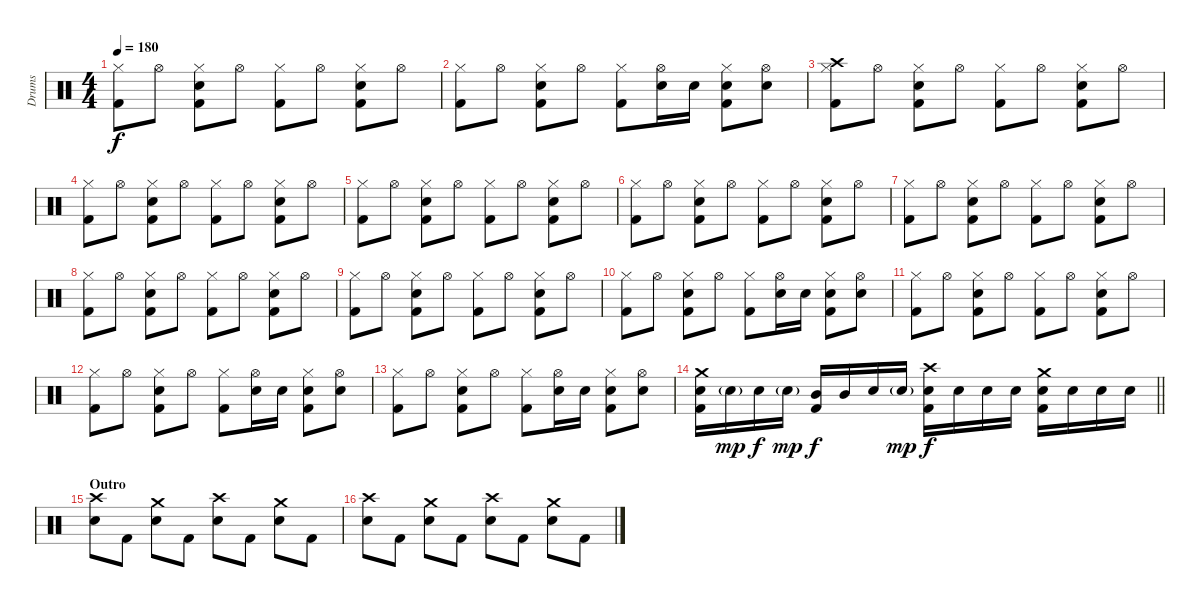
\track ("Drums" "Drums") {instrument percussion}
\staff {score}
\articulation defaults
\ts (4 4)
\tempo 180
\clef neutral
\ks c
("Hi-Hat (closed)" "Kick (hit) 2").8{dy f} "Hi-Hat (open)".8 ("Hi-Hat (closed)" "Snare (hit) 2" "Kick (hit) 2").8 "Hi-Hat (open)".8 ("Hi-Hat (closed)" "Kick (hit) 2").8 "Hi-Hat (open)".8 ("Hi-Hat (closed)" "Snare (hit) 2" "Kick (hit) 2").8 "Hi-Hat (open)".8 |
("Hi-Hat (closed)" "Kick (hit) 2").8 "Hi-Hat (open)".8 ("Hi-Hat (closed)" "Snare (hit) 2" "Kick (hit) 2").8 "Hi-Hat (open)".8 ("Hi-Hat (closed)" "Kick (hit) 2").8 ("Hi-Hat (open)" "Snare (hit) 2").16 "Snare (hit) 2".16 ("Hi-Hat (closed)" "Snare (hit) 2" "Kick (hit) 2").8 ("Hi-Hat (open)" "Snare (hit) 2").8 |
("Crash high (hit)" "Hi-Hat (closed)" "Kick (hit) 2").8 "Hi-Hat (open)".8 ("Hi-Hat (closed)" "Snare (hit) 2" "Kick (hit) 2").8 "Hi-Hat (open)".8 ("Hi-Hat (closed)" "Kick (hit) 2").8 "Hi-Hat (open)".8 ("Hi-Hat (closed)" "Snare (hit) 2" "Kick (hit) 2").8 "Hi-Hat (open)".8 |
("Hi-Hat (closed)" "Kick (hit) 2").8 "Hi-Hat (open)".8 ("Hi-Hat (closed)" "Snare (hit) 2" "Kick (hit) 2").8 "Hi-Hat (open)".8 ("Hi-Hat (closed)" "Kick (hit) 2").8 "Hi-Hat (open)".8 ("Hi-Hat (closed)" "Snare (hit) 2" "Kick (hit) 2").8 "Hi-Hat (open)".8 |
("Hi-Hat (closed)" "Kick (hit) 2").8 "Hi-Hat (open)".8 ("Hi-Hat (closed)" "Snare (hit) 2" "Kick (hit) 2").8 "Hi-Hat (open)".8 ("Hi-Hat (closed)" "Kick (hit) 2").8 "Hi-Hat (open)".8 ("Hi-Hat (closed)" "Snare (hit) 2" "Kick (hit) 2").8 "Hi-Hat (open)".8 |
("Hi-Hat (closed)" "Kick (hit) 2").8 "Hi-Hat (open)".8 ("Hi-Hat (closed)" "Snare (hit) 2" "Kick (hit) 2").8 "Hi-Hat (open)".8 ("Hi-Hat (closed)" "Kick (hit) 2").8 "Hi-Hat (open)".8 ("Hi-Hat (closed)" "Snare (hit) 2" "Kick (hit) 2").8 "Hi-Hat (open)".8 |
("Hi-Hat (closed)" "Kick (hit) 2").8 "Hi-Hat (open)".8 ("Hi-Hat (closed)" "Snare (hit) 2" "Kick (hit) 2").8 "Hi-Hat (open)".8 ("Hi-Hat (closed)" "Kick (hit) 2").8 "Hi-Hat (open)".8 ("Hi-Hat (closed)" "Snare (hit) 2" "Kick (hit) 2").8 "Hi-Hat (open)".8 |
("Hi-Hat (closed)" "Kick (hit) 2").8 "Hi-Hat (open)".8 ("Hi-Hat (closed)" "Snare (hit) 2" "Kick (hit) 2").8 "Hi-Hat (open)".8 ("Hi-Hat (closed)" "Kick (hit) 2").8 "Hi-Hat (open)".8 ("Hi-Hat (closed)" "Snare (hit) 2" "Kick (hit) 2").8 "Hi-Hat (open)".8 |
("Hi-Hat (closed)" "Kick (hit) 2").8 "Hi-Hat (open)".8 ("Hi-Hat (closed)" "Snare (hit) 2" "Kick (hit) 2").8 "Hi-Hat (open)".8 ("Hi-Hat (closed)" "Kick (hit) 2").8 "Hi-Hat (open)".8 ("Hi-Hat (closed)" "Snare (hit) 2" "Kick (hit) 2").8 "Hi-Hat (open)".8 |
("Hi-Hat (closed)" "Kick (hit) 2").8 "Hi-Hat (open)".8 ("Hi-Hat (closed)" "Snare (hit) 2" "Kick (hit) 2").8 "Hi-Hat (open)".8 ("Hi-Hat (closed)" "Kick (hit) 2").8 ("Hi-Hat (open)" "Snare (hit) 2").16 "Snare (hit) 2".16 ("Hi-Hat (closed)" "Snare (hit) 2" "Kick (hit) 2").8 ("Hi-Hat (open)" "Snare (hit) 2").8 |
("Hi-Hat (closed)" "Kick (hit) 2").8 "Hi-Hat (open)".8 ("Hi-Hat (closed)" "Snare (hit) 2" "Kick (hit) 2").8 "Hi-Hat (open)".8 ("Hi-Hat (closed)" "Kick (hit) 2").8 "Hi-Hat (open)".8 ("Hi-Hat (closed)" "Snare (hit) 2" "Kick (hit) 2").8 "Hi-Hat (open)".8 |
("Hi-Hat (closed)" "Kick (hit) 2").8 "Hi-Hat (open)".8 ("Hi-Hat (closed)" "Snare (hit) 2" "Kick (hit) 2").8 "Hi-Hat (open)".8 ("Hi-Hat (closed)" "Kick (hit) 2").8 ("Hi-Hat (open)" "Snare (hit) 2").16 "Snare (hit) 2".16 ("Hi-Hat (closed)" "Snare (hit) 2" "Kick (hit) 2").8 ("Hi-Hat (open)" "Snare (hit) 2").8 |
("Hi-Hat (closed)" "Kick (hit) 2").8 "Hi-Hat (open)".8 ("Hi-Hat (closed)" "Snare (hit) 2" "Kick (hit) 2").8 "Hi-Hat (open)".8 ("Hi-Hat (closed)" "Kick (hit) 2").8 ("Hi-Hat (open)" "Snare (hit) 2").16 "Snare (hit) 2".16 ("Hi-Hat (closed)" "Snare (hit) 2" "Kick (hit) 2").8 ("Hi-Hat (open)" "Snare (hit) 2").8 |
\barLineRight lightlight
("Crash medium (hit)" "Snare (hit) 2" "Kick (hit) 2").16 "Snare (hit) 2"{g}.16{dy mp} "Snare (hit) 2".16{dy f} "Snare (hit) 2"{g}.16{dy mp} ("Mid Tom (hit)" "Kick (hit) 2").16{dy f} "Mid Tom (hit)".16 "Snare (hit) 2".16 "Snare (hit) 2"{g}.16{dy mp} ("Crash high (hit)" "Snare (hit) 2" "Kick (hit) 2").16{dy f} "Snare (hit) 2".16 "Snare (hit) 2".16 "Snare (hit) 2".16 ("Crash medium (hit)" "Snare (hit) 2" "Kick (hit) 2").16 "Snare (hit) 2".16 "Snare (hit) 2".16 "Snare (hit) 2".16 |
\section ("" "Outro")
("Crash high (hit)" "Snare (hit) 2").8 "Kick (hit) 2".8 ("Crash medium (hit)" "Snare (hit) 2").8 "Kick (hit) 2".8 ("Crash high (hit)" "Snare (hit) 2").8 "Kick (hit) 2".8 ("Crash medium (hit)" "Snare (hit) 2").8 "Kick (hit) 2".8 |
("Crash high (hit)" "Snare (hit) 2").8 "Kick (hit) 2".8 ("Crash medium (hit)" "Snare (hit) 2").8 "Kick (hit) 2".8 ("Crash high (hit)" "Snare (hit) 2").8 "Kick (hit) 2".8 ("Crash medium (hit)" "Snare (hit) 2").8 "Kick (hit) 2".8
